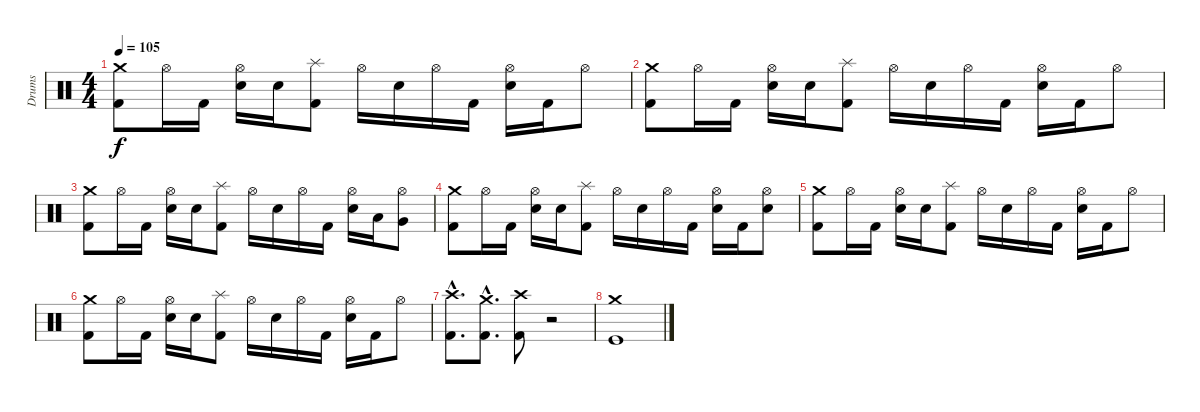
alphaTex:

\track ("Drums" "Drums") {instrument percussion}
\staff {score}
\articulation defaults
\ts (4 4)
\tempo 105
\clef neutral
\ks c
("Crash medium (hit)" "Kick (hit) 2").8{dy f} "Hi-Hat (open)".16 "Kick (hit) 2".16 ("Hi-Hat (open)" "Electric Snare (hit)").16 "Electric Snare (hit)".16 ("Splash (hit)" "Kick (hit) 2").8 "Hi-Hat (open)".16 "Electric Snare (hit)".16 "Hi-Hat (open)".16 "Kick (hit) 2".16 ("Hi-Hat (open)" "Electric Snare (hit)").16 "Kick (hit) 2".16 "Hi-Hat (open)".8 |
("Crash medium (hit)" "Kick (hit) 2").8 "Hi-Hat (open)".16 "Kick (hit) 2".16 ("Hi-Hat (open)" "Electric Snare (hit)").16 "Electric Snare (hit)".16 ("Splash (hit)" "Kick (hit) 2").8 "Hi-Hat (open)".16 "Electric Snare (hit)".16 "Hi-Hat (open)".16 "Kick (hit) 2".16 ("Hi-Hat (open)" "Electric Snare (hit)").16 "Kick (hit) 2".16 "Hi-Hat (open)".8 |
("Crash medium (hit)" "Kick (hit) 2").8 "Hi-Hat (open)".16 "Kick (hit) 2".16 ("Hi-Hat (open)" "Electric Snare (hit)").16 "Electric Snare (hit)".16 ("Splash (hit)" "Kick (hit) 2").8 "Hi-Hat (open)".16 "Electric Snare (hit)".16 "Hi-Hat (open)".16 "Kick (hit) 2".16 ("Hi-Hat (open)" "Electric Snare (hit)").16 "Low Tom (hit)".16 ("Hi-Hat (open)" "Very Low Tom (hit)").8 |
("Crash medium (hit)" "Kick (hit) 2").8 "Hi-Hat (open)".16 "Kick (hit) 2".16 ("Hi-Hat (open)" "Electric Snare (hit)").16 "Electric Snare (hit)".16 ("Splash (hit)" "Kick (hit) 2").8 "Hi-Hat (open)".16 "Electric Snare (hit)".16 "Hi-Hat (open)".16 "Kick (hit) 2".16 ("Hi-Hat (open)" "Electric Snare (hit)").16 "Kick (hit) 2".16 ("Hi-Hat (open)" "Electric Snare (hit)").8 |
("Crash medium (hit)" "Kick (hit) 2").8 "Hi-Hat (open)".16 "Kick (hit) 2".16 ("Hi-Hat (open)" "Electric Snare (hit)").16 "Electric Snare (hit)".16 ("Splash (hit)" "Kick (hit) 2").8 "Hi-Hat (open)".16 "Electric Snare (hit)".16 "Hi-Hat (open)".16 "Kick (hit) 2".16 ("Hi-Hat (open)" "Electric Snare (hit)").16 "Kick (hit) 2".16 "Hi-Hat (open)".8 |
("Crash medium (hit)" "Kick (hit) 2").8 "Hi-Hat (open)".16 "Kick (hit) 2".16 ("Hi-Hat (open)" "Electric Snare (hit)").16 "Electric Snare (hit)".16 ("Splash (hit)" "Kick (hit) 2").8 "Hi-Hat (open)".16 "Electric Snare (hit)".16 "Hi-Hat (open)".16 "Kick (hit) 2".16 ("Hi-Hat (open)" "Electric Snare (hit)").16 "Kick (hit) 2".16 "Hi-Hat (open)".8 |
("Crash high (hit)"{hac} "Kick (hit) 2"{hac}).8{d} ("Crash medium (hit)"{hac} "Kick (hit) 2"{hac}).8{d} ("Crash high (hit)" "Kick (hit) 2").8 r.2 |
("Crash medium (hit)" "Kick (hit)").1
